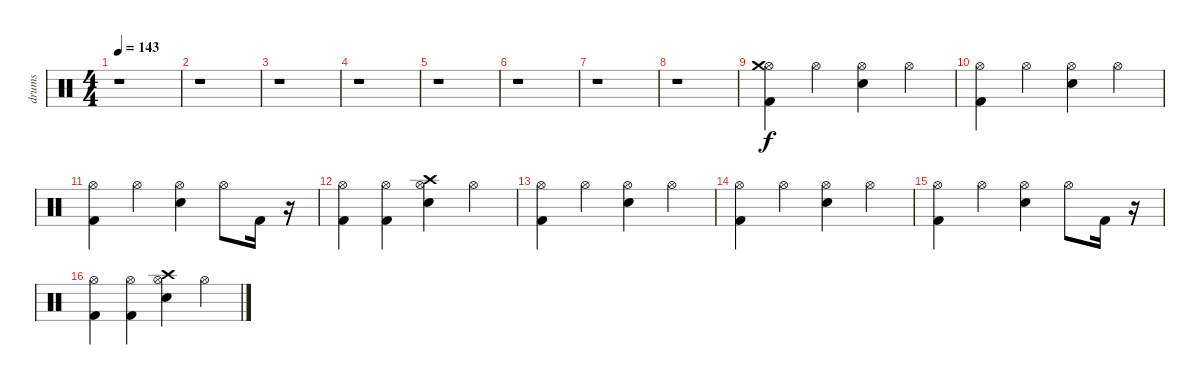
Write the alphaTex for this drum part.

\track ("drums" "drums") {instrument percussion}
\staff {score}
\articulation defaults
\ts (4 4)
\tempo 143
\clef neutral
\ks c
r.1{dy f} |
r.1 |
r.1 |
r.1 |
r.1 |
r.1 |
r.1 |
r.1 |
("Hi-Hat (open)" "Crash medium (hit)" "Kick (hit) 2").4 "Hi-Hat (open)".4 ("Electric Snare (hit)" "Hi-Hat (open)").4 "Hi-Hat (open)".4 |
("Kick (hit) 2" "Hi-Hat (open)").4 "Hi-Hat (open)".4 ("Electric Snare (hit)" "Hi-Hat (open)").4 "Hi-Hat (open)".4 |
("Hi-Hat (open)" "Kick (hit) 2").4 "Hi-Hat (open)".4 ("Electric Snare (hit)" "Hi-Hat (open)").4 "Hi-Hat (open)".8 "Kick (hit) 2".16 r.16 |
("Kick (hit) 2" "Hi-Hat (open)").4 ("Kick (hit) 2" "Hi-Hat (open)").4 ("Crash high (hit)" "Electric Snare (hit)" "Hi-Hat (open)").4 "Hi-Hat (open)".4 |
("Hi-Hat (open)" "Kick (hit) 2").4 "Hi-Hat (open)".4 ("Electric Snare (hit)" "Hi-Hat (open)").4 "Hi-Hat (open)".4 |
("Kick (hit) 2" "Hi-Hat (open)").4 "Hi-Hat (open)".4 ("Electric Snare (hit)" "Hi-Hat (open)").4 "Hi-Hat (open)".4 |
("Hi-Hat (open)" "Kick (hit) 2").4 "Hi-Hat (open)".4 ("Electric Snare (hit)" "Hi-Hat (open)").4 "Hi-Hat (open)".8 "Kick (hit) 2".16 r.16 |
("Kick (hit) 2" "Hi-Hat (open)").4 ("Kick (hit) 2" "Hi-Hat (open)").4 ("Crash high (hit)" "Electric Snare (hit)" "Hi-Hat (open)").4 "Hi-Hat (open)".4
